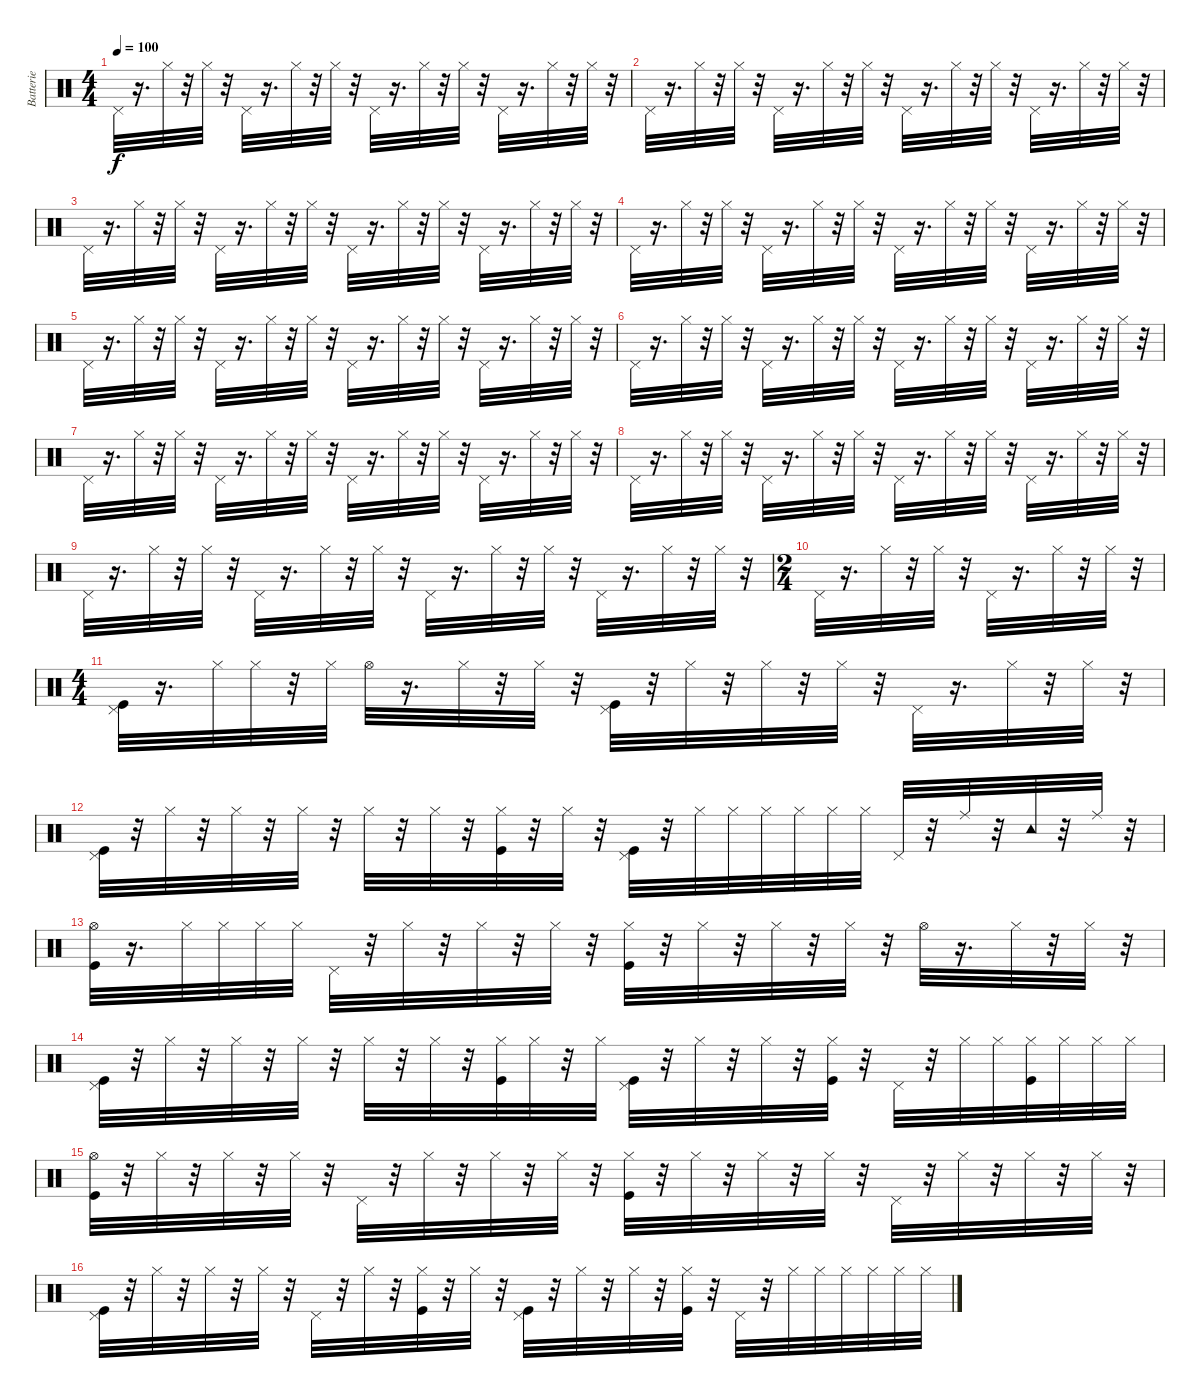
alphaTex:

\track ("Batterie" "Batterie") {instrument percussion}
\staff {score}
\articulation defaults
\ts (4 4)
\tempo 100
\clef neutral
\ks c "Pedal Hi-Hat (hit)".32{dy f}
r.16{d} "Hi-Hat (closed)".32 r.32 "Hi-Hat (closed)".32 r.32 "Pedal Hi-Hat (hit)".32 r.16{d} "Hi-Hat (closed)".32 r.32 "Hi-Hat (closed)".32 r.32 "Pedal Hi-Hat (hit)".32 r.16{d} "Hi-Hat (closed)".32 r.32 "Hi-Hat (closed)".32 r.32 "Pedal Hi-Hat (hit)".32 r.16{d} "Hi-Hat (closed)".32 r.32 "Hi-Hat (closed)".32 r.32 |
"Pedal Hi-Hat (hit)".32 r.16{d} "Hi-Hat (closed)".32 r.32 "Hi-Hat (closed)".32 r.32 "Pedal Hi-Hat (hit)".32 r.16{d} "Hi-Hat (closed)".32 r.32 "Hi-Hat (closed)".32 r.32 "Pedal Hi-Hat (hit)".32 r.16{d} "Hi-Hat (closed)".32 r.32 "Hi-Hat (closed)".32 r.32 "Pedal Hi-Hat (hit)".32 r.16{d} "Hi-Hat (closed)".32 r.32 "Hi-Hat (closed)".32 r.32 |
"Pedal Hi-Hat (hit)".32 r.16{d} "Hi-Hat (closed)".32 r.32 "Hi-Hat (closed)".32 r.32 "Pedal Hi-Hat (hit)".32 r.16{d} "Hi-Hat (closed)".32 r.32 "Hi-Hat (closed)".32 r.32 "Pedal Hi-Hat (hit)".32 r.16{d} "Hi-Hat (closed)".32 r.32 "Hi-Hat (closed)".32 r.32 "Pedal Hi-Hat (hit)".32 r.16{d} "Hi-Hat (closed)".32 r.32 "Hi-Hat (closed)".32 r.32 |
"Pedal Hi-Hat (hit)".32 r.16{d} "Hi-Hat (closed)".32 r.32 "Hi-Hat (closed)".32 r.32 "Pedal Hi-Hat (hit)".32 r.16{d} "Hi-Hat (closed)".32 r.32 "Hi-Hat (closed)".32 r.32 "Pedal Hi-Hat (hit)".32 r.16{d} "Hi-Hat (closed)".32 r.32 "Hi-Hat (closed)".32 r.32 "Pedal Hi-Hat (hit)".32 r.16{d} "Hi-Hat (closed)".32 r.32 "Hi-Hat (closed)".32 r.32 |
"Pedal Hi-Hat (hit)".32 r.16{d} "Hi-Hat (closed)".32 r.32 "Hi-Hat (closed)".32 r.32 "Pedal Hi-Hat (hit)".32 r.16{d} "Hi-Hat (closed)".32 r.32 "Hi-Hat (closed)".32 r.32 "Pedal Hi-Hat (hit)".32 r.16{d} "Hi-Hat (closed)".32 r.32 "Hi-Hat (closed)".32 r.32 "Pedal Hi-Hat (hit)".32 r.16{d} "Hi-Hat (closed)".32 r.32 "Hi-Hat (closed)".32 r.32 |
"Pedal Hi-Hat (hit)".32 r.16{d} "Hi-Hat (closed)".32 r.32 "Hi-Hat (closed)".32 r.32 "Pedal Hi-Hat (hit)".32 r.16{d} "Hi-Hat (closed)".32 r.32 "Hi-Hat (closed)".32 r.32 "Pedal Hi-Hat (hit)".32 r.16{d} "Hi-Hat (closed)".32 r.32 "Hi-Hat (closed)".32 r.32 "Pedal Hi-Hat (hit)".32 r.16{d} "Hi-Hat (closed)".32 r.32 "Hi-Hat (closed)".32 r.32 |
"Pedal Hi-Hat (hit)".32 r.16{d} "Hi-Hat (closed)".32 r.32 "Hi-Hat (closed)".32 r.32 "Pedal Hi-Hat (hit)".32 r.16{d} "Hi-Hat (closed)".32 r.32 "Hi-Hat (closed)".32 r.32 "Pedal Hi-Hat (hit)".32 r.16{d} "Hi-Hat (closed)".32 r.32 "Hi-Hat (closed)".32 r.32 "Pedal Hi-Hat (hit)".32 r.16{d} "Hi-Hat (closed)".32 r.32 "Hi-Hat (closed)".32 r.32 |
"Pedal Hi-Hat (hit)".32 r.16{d} "Hi-Hat (closed)".32 r.32 "Hi-Hat (closed)".32 r.32 "Pedal Hi-Hat (hit)".32 r.16{d} "Hi-Hat (closed)".32 r.32 "Hi-Hat (closed)".32 r.32 "Pedal Hi-Hat (hit)".32 r.16{d} "Hi-Hat (closed)".32 r.32 "Hi-Hat (closed)".32 r.32 "Pedal Hi-Hat (hit)".32 r.16{d} "Hi-Hat (closed)".32 r.32 "Hi-Hat (closed)".32 r.32 |
"Pedal Hi-Hat (hit)".32 r.16{d} "Hi-Hat (closed)".32 r.32 "Hi-Hat (closed)".32 r.32 "Pedal Hi-Hat (hit)".32 r.16{d} "Hi-Hat (closed)".32 r.32 "Hi-Hat (closed)".32 r.32 "Pedal Hi-Hat (hit)".32 r.16{d} "Hi-Hat (closed)".32 r.32 "Hi-Hat (closed)".32 r.32 "Pedal Hi-Hat (hit)".32 r.16{d} "Hi-Hat (closed)".32 r.32 "Hi-Hat (closed)".32 r.32 |
\ts (2 4)
"Pedal Hi-Hat (hit)".32 r.16{d} "Hi-Hat (closed)".32 r.32 "Hi-Hat (closed)".32 r.32 "Pedal Hi-Hat (hit)".32 r.16{d} "Hi-Hat (closed)".32 r.32 "Hi-Hat (closed)".32 r.32 |
\ts (4 4)
("Kick (hit)" "Pedal Hi-Hat (hit)").32 r.16{d} "Hi-Hat (closed)".32 "Hi-Hat (closed)".32 r.32 "Hi-Hat (closed)".32 "Hi-Hat (open)".32 r.16{d} "Hi-Hat (closed)".32 r.32 "Hi-Hat (closed)".32 r.32 ("Kick (hit)" "Pedal Hi-Hat (hit)").32 r.32 "Hi-Hat (closed)".32 r.32 "Hi-Hat (closed)".32 r.32 "Hi-Hat (closed)".32 r.32 "Pedal Hi-Hat (hit)".32 r.16{d} "Hi-Hat (closed)".32 r.32 "Hi-Hat (closed)".32 r.32 |
("Kick (hit)" "Pedal Hi-Hat (hit)").32 r.32 "Hi-Hat (closed)".32 r.32 "Hi-Hat (closed)".32 r.32 "Hi-Hat (closed)".32 r.32 "Hi-Hat (closed)".32 r.32 "Hi-Hat (closed)".32 r.32 ("Kick (hit)" "Hi-Hat (closed)").32 r.32 "Hi-Hat (closed)".32 r.32 ("Kick (hit)" "Pedal Hi-Hat (hit)").32 r.32 "Hi-Hat (closed)".32 "Hi-Hat (closed)".32 "Hi-Hat (closed)".32 "Hi-Hat (closed)".32 "Hi-Hat (closed)".32 "Hi-Hat (closed)".32 "Pedal Hi-Hat (hit)".32 r.32 "Ride (middle)".32 r.32 "Tambourine (hit)".32 r.32 "Ride (middle)".32 r.32 |
("Kick (hit)" "Hi-Hat (open)").32 r.16{d} "Hi-Hat (closed)".32 "Hi-Hat (closed)".32 "Hi-Hat (closed)".32 "Hi-Hat (closed)".32 "Pedal Hi-Hat (hit)".32 r.32 "Hi-Hat (closed)".32 r.32 "Hi-Hat (closed)".32 r.32 "Hi-Hat (closed)".32 r.32 ("Kick (hit)" "Hi-Hat (closed)").32 r.32 "Hi-Hat (closed)".32 r.32 "Hi-Hat (closed)".32 r.32 "Hi-Hat (closed)".32 r.32 "Hi-Hat (open)".32 r.16{d} "Hi-Hat (closed)".32 r.32 "Hi-Hat (closed)".32 r.32 |
("Kick (hit)" "Pedal Hi-Hat (hit)").32 r.32 "Hi-Hat (closed)".32 r.32 "Hi-Hat (closed)".32 r.32 "Hi-Hat (closed)".32 r.32 "Hi-Hat (closed)".32 r.32 "Hi-Hat (closed)".32 r.32 ("Kick (hit)" "Hi-Hat (closed)").32 "Hi-Hat (closed)".32 r.32 "Hi-Hat (closed)".32 ("Kick (hit)" "Pedal Hi-Hat (hit)").32 r.32 "Hi-Hat (closed)".32 r.32 "Hi-Hat (closed)".32 r.32 ("Kick (hit)" "Hi-Hat (closed)").32 r.32 "Pedal Hi-Hat (hit)".32 r.32 "Hi-Hat (closed)".32 "Hi-Hat (closed)".32 ("Kick (hit)" "Hi-Hat (closed)").32 "Hi-Hat (closed)".32 "Hi-Hat (closed)".32 "Hi-Hat (closed)".32 |
("Kick (hit)" "Hi-Hat (open)").32 r.32 "Hi-Hat (closed)".32 r.32 "Hi-Hat (closed)".32 r.32 "Hi-Hat (closed)".32 r.32 "Pedal Hi-Hat (hit)".32 r.32 "Hi-Hat (closed)".32 r.32 "Hi-Hat (closed)".32 r.32 "Hi-Hat (closed)".32 r.32 ("Kick (hit)" "Hi-Hat (closed)").32 r.32 "Hi-Hat (closed)".32 r.32 "Hi-Hat (closed)".32 r.32 "Hi-Hat (closed)".32 r.32 "Pedal Hi-Hat (hit)".32 r.32 "Hi-Hat (closed)".32 r.32 "Hi-Hat (closed)".32 r.32 "Hi-Hat (closed)".32 r.32 |
("Kick (hit)" "Pedal Hi-Hat (hit)").32 r.32 "Hi-Hat (closed)".32 r.32 "Hi-Hat (closed)".32 r.32 "Hi-Hat (closed)".32 r.32 "Pedal Hi-Hat (hit)".32 r.32 "Hi-Hat (closed)".32 r.32 ("Kick (hit)" "Hi-Hat (closed)").32 r.32 "Hi-Hat (closed)".32 r.32 ("Kick (hit)" "Pedal Hi-Hat (hit)").32 r.32 "Hi-Hat (closed)".32 r.32 "Hi-Hat (closed)".32 r.32 ("Kick (hit)" "Hi-Hat (closed)").32 r.32 "Pedal Hi-Hat (hit)".32 r.32 "Hi-Hat (closed)".32 "Hi-Hat (closed)".32 "Hi-Hat (closed)".32 "Hi-Hat (closed)".32 "Hi-Hat (closed)".32 "Hi-Hat (closed)".32
